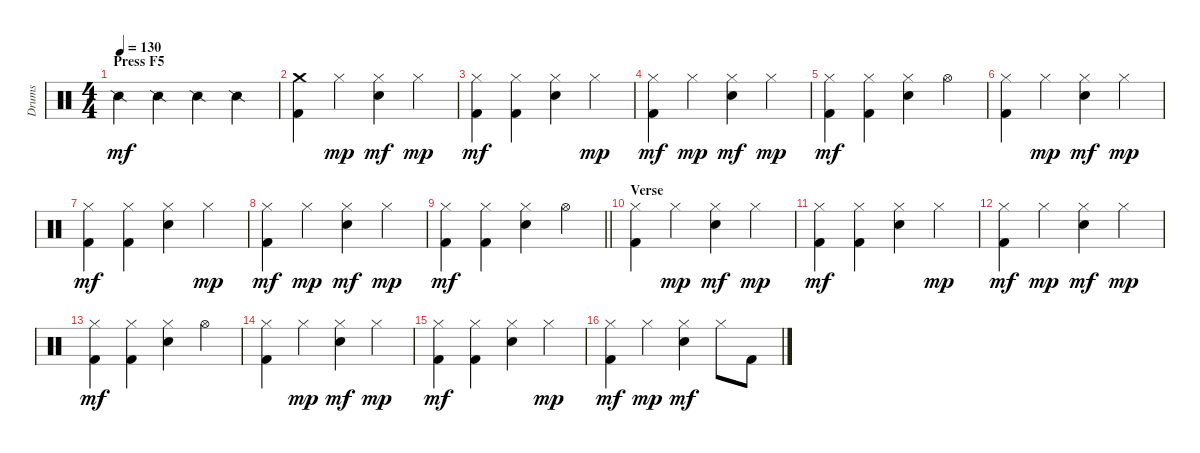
\track ("Drums" "Drums") {instrument percussion}
\staff {score}
\articulation defaults
\ts (4 4)
\section ("" "Press F5")
\tempo 130
\clef neutral
\ks c "Snare (side stick) 2".4{dy mf} "Snare (side stick) 2".4 "Snare (side stick) 2".4 "Snare (side stick) 2".4
|
("Crash medium (hit)" "Kick (hit) 2").4 "Hi-Hat (closed)".4{dy mp} ("Hi-Hat (closed)" "Snare (hit) 2").4{dy mf} "Hi-Hat (closed)".4{dy mp} |
("Hi-Hat (closed)" "Kick (hit) 2").4{dy mf} ("Hi-Hat (closed)" "Kick (hit) 2").4 ("Hi-Hat (closed)" "Snare (hit) 2").4 "Hi-Hat (closed)".4{dy mp} |
("Hi-Hat (closed)" "Kick (hit) 2").4{dy mf} "Hi-Hat (closed)".4{dy mp} ("Hi-Hat (closed)" "Snare (hit) 2").4{dy mf} "Hi-Hat (closed)".4{dy mp} |
("Hi-Hat (closed)" "Kick (hit) 2").4{dy mf} ("Hi-Hat (closed)" "Kick (hit) 2").4 ("Hi-Hat (closed)" "Snare (hit) 2").4 "Hi-Hat (open)".4 |
("Hi-Hat (closed)" "Kick (hit) 2").4 "Hi-Hat (closed)".4{dy mp} ("Hi-Hat (closed)" "Snare (hit) 2").4{dy mf} "Hi-Hat (closed)".4{dy mp} |
("Hi-Hat (closed)" "Kick (hit) 2").4{dy mf} ("Hi-Hat (closed)" "Kick (hit) 2").4 ("Hi-Hat (closed)" "Snare (hit) 2").4 "Hi-Hat (closed)".4{dy mp} |
("Hi-Hat (closed)" "Kick (hit) 2").4{dy mf} "Hi-Hat (closed)".4{dy mp} ("Hi-Hat (closed)" "Snare (hit) 2").4{dy mf} "Hi-Hat (closed)".4{dy mp} |
\barLineRight lightlight
("Hi-Hat (closed)" "Kick (hit) 2").4{dy mf} ("Hi-Hat (closed)" "Kick (hit) 2").4 ("Hi-Hat (closed)" "Snare (hit) 2").4 "Hi-Hat (open)".4 |
\section ("" "Verse")
("Hi-Hat (closed)" "Kick (hit) 2").4 "Hi-Hat (closed)".4{dy mp} ("Hi-Hat (closed)" "Snare (hit) 2").4{dy mf} "Hi-Hat (closed)".4{dy mp} |
("Hi-Hat (closed)" "Kick (hit) 2").4{dy mf} ("Hi-Hat (closed)" "Kick (hit) 2").4 ("Hi-Hat (closed)" "Snare (hit) 2").4 "Hi-Hat (closed)".4{dy mp} |
("Hi-Hat (closed)" "Kick (hit) 2").4{dy mf} "Hi-Hat (closed)".4{dy mp} ("Hi-Hat (closed)" "Snare (hit) 2").4{dy mf} "Hi-Hat (closed)".4{dy mp} |
("Hi-Hat (closed)" "Kick (hit) 2").4{dy mf} ("Hi-Hat (closed)" "Kick (hit) 2").4 ("Hi-Hat (closed)" "Snare (hit) 2").4 "Hi-Hat (open)".4 |
("Hi-Hat (closed)" "Kick (hit) 2").4 "Hi-Hat (closed)".4{dy mp} ("Hi-Hat (closed)" "Snare (hit) 2").4{dy mf} "Hi-Hat (closed)".4{dy mp} |
("Hi-Hat (closed)" "Kick (hit) 2").4{dy mf} ("Hi-Hat (closed)" "Kick (hit) 2").4 ("Hi-Hat (closed)" "Snare (hit) 2").4 "Hi-Hat (closed)".4{dy mp} |
("Hi-Hat (closed)" "Kick (hit) 2").4{dy mf} "Hi-Hat (closed)".4{dy mp} ("Hi-Hat (closed)" "Snare (hit) 2").4{dy mf} "Hi-Hat (closed)".8 "Kick (hit) 2".8
